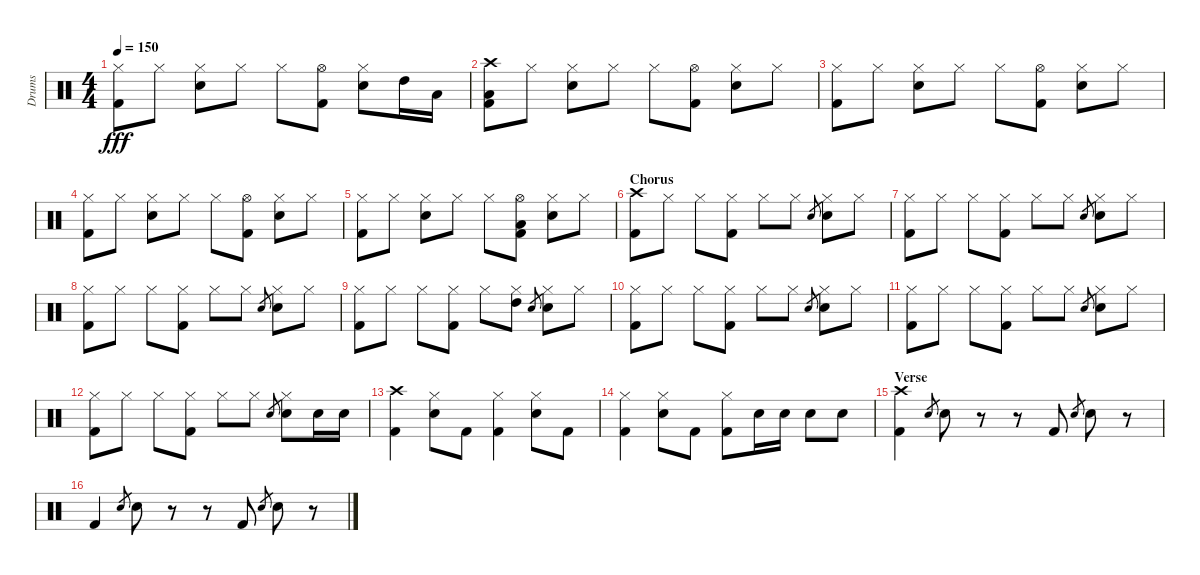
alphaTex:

\track ("Drums" "Drums") {instrument percussion}
\staff {score}
\articulation defaults
\ts (4 4)
\tempo 150
\clef neutral
\ks c
("Hi-Hat (closed)" "Kick (hit) 2").8{dy fff} "Hi-Hat (closed)".8 ("Hi-Hat (closed)" "Snare (hit) 2").8 "Hi-Hat (closed)".8 "Hi-Hat (closed)".8 ("Hi-Hat (open)" "Kick (hit) 2").8 ("Hi-Hat (closed)" "Snare (hit) 2").8 "High Tom (hit)".16 "Low Tom (hit)".16 |
("Crash high (hit)" "Low Floor Tom (hit)" "Kick (hit) 2").8 "Hi-Hat (closed)".8 ("Hi-Hat (closed)" "Snare (hit) 2").8 "Hi-Hat (closed)".8 "Hi-Hat (closed)".8 ("Hi-Hat (open)" "Kick (hit) 2").8 ("Hi-Hat (closed)" "Snare (hit) 2").8 "Hi-Hat (closed)".8 |
("Hi-Hat (closed)" "Kick (hit) 2").8 "Hi-Hat (closed)".8 ("Hi-Hat (closed)" "Snare (hit) 2").8 "Hi-Hat (closed)".8 "Hi-Hat (closed)".8 ("Hi-Hat (open)" "Kick (hit) 2").8 ("Hi-Hat (closed)" "Snare (hit) 2").8 "Hi-Hat (closed)".8 |
("Hi-Hat (closed)" "Kick (hit) 2").8 "Hi-Hat (closed)".8 ("Hi-Hat (closed)" "Snare (hit) 2").8 "Hi-Hat (closed)".8 "Hi-Hat (closed)".8 ("Hi-Hat (open)" "Kick (hit) 2").8 ("Hi-Hat (closed)" "Snare (hit) 2").8 "Hi-Hat (closed)".8 |
("Hi-Hat (closed)" "Kick (hit) 2").8 "Hi-Hat (closed)".8 ("Hi-Hat (closed)" "Snare (hit) 2").8 "Hi-Hat (closed)".8 "Hi-Hat (closed)".8 ("Hi-Hat (open)" "Low Floor Tom (hit)" "Kick (hit) 2").8 ("Hi-Hat (closed)" "Snare (hit) 2").8 "Hi-Hat (closed)".8 |
\section ("" "Chorus")
("Crash high (hit)" "Kick (hit) 2").8 "Hi-Hat (closed)".8 "Hi-Hat (closed)".8 ("Hi-Hat (closed)" "Kick (hit) 2").8 "Hi-Hat (closed)".8 "Hi-Hat (closed)".8 "Snare (hit) 2".8{gr} ("Hi-Hat (closed)" "Snare (hit) 2").8 "Hi-Hat (closed)".8 |
("Hi-Hat (closed)" "Kick (hit) 2").8 "Hi-Hat (closed)".8 "Hi-Hat (closed)".8 ("Hi-Hat (closed)" "Kick (hit) 2").8 "Hi-Hat (closed)".8 "Hi-Hat (closed)".8 "Snare (hit) 2".8{gr} ("Hi-Hat (closed)" "Snare (hit) 2").8 "Hi-Hat (closed)".8 |
("Hi-Hat (closed)" "Kick (hit) 2").8 "Hi-Hat (closed)".8 "Hi-Hat (closed)".8 ("Hi-Hat (closed)" "Kick (hit) 2").8 "Hi-Hat (closed)".8 "Hi-Hat (closed)".8 "Snare (hit) 2".8{gr} ("Hi-Hat (closed)" "Snare (hit) 2").8 "Hi-Hat (closed)".8 |
("Hi-Hat (closed)" "Kick (hit) 2").8 "Hi-Hat (closed)".8 "Hi-Hat (closed)".8 ("Hi-Hat (closed)" "Kick (hit) 2").8 "Hi-Hat (closed)".8 ("Hi-Hat (closed)" "High Tom (hit)").8 "Snare (hit) 2".8{gr} ("Hi-Hat (closed)" "Snare (hit) 2").8 "Hi-Hat (closed)".8 |
("Hi-Hat (closed)" "Kick (hit) 2").8 "Hi-Hat (closed)".8 "Hi-Hat (closed)".8 ("Hi-Hat (closed)" "Kick (hit) 2").8 "Hi-Hat (closed)".8 "Hi-Hat (closed)".8 "Snare (hit) 2".8{gr} ("Hi-Hat (closed)" "Snare (hit) 2").8 "Hi-Hat (closed)".8 |
("Hi-Hat (closed)" "Kick (hit) 2").8 "Hi-Hat (closed)".8 "Hi-Hat (closed)".8 ("Hi-Hat (closed)" "Kick (hit) 2").8 "Hi-Hat (closed)".8 "Hi-Hat (closed)".8 "Snare (hit) 2".8{gr} ("Hi-Hat (closed)" "Snare (hit) 2").8 "Hi-Hat (closed)".8 |
("Hi-Hat (closed)" "Kick (hit) 2").8 "Hi-Hat (closed)".8 "Hi-Hat (closed)".8 ("Hi-Hat (closed)" "Kick (hit) 2").8 "Hi-Hat (closed)".8 "Hi-Hat (closed)".8 "Snare (hit) 2".8{gr} ("Hi-Hat (closed)" "Snare (hit) 2").8 "Snare (hit) 2".16 "Snare (hit) 2".16 |
("Crash high (hit)" "Kick (hit) 2").4 ("Hi-Hat (closed)" "Snare (hit) 2").8 "Kick (hit) 2".8 ("Hi-Hat (closed)" "Kick (hit) 2").4 ("Hi-Hat (closed)" "Snare (hit) 2").8 "Kick (hit) 2".8 |
("Hi-Hat (closed)" "Kick (hit) 2").4 ("Hi-Hat (closed)" "Snare (hit) 2").8 "Kick (hit) 2".8 ("Hi-Hat (closed)" "Kick (hit) 2").8 "Snare (hit) 2".16 "Snare (hit) 2".16 "Snare (hit) 2".8 "Snare (hit) 2".8 |
\section ("" "Verse")
("Crash high (hit)" "Kick (hit) 2").4 "Snare (hit) 2".8{gr} "Snare (hit) 2".8 r.8 r.8 "Kick (hit) 2".8 "Snare (hit) 2".8{gr} "Snare (hit) 2".8 r.8 |
"Kick (hit) 2".4 "Snare (hit) 2".8{gr} "Snare (hit) 2".8 r.8 r.8 "Kick (hit) 2".8 "Snare (hit) 2".8{gr} "Snare (hit) 2".8 r.8
